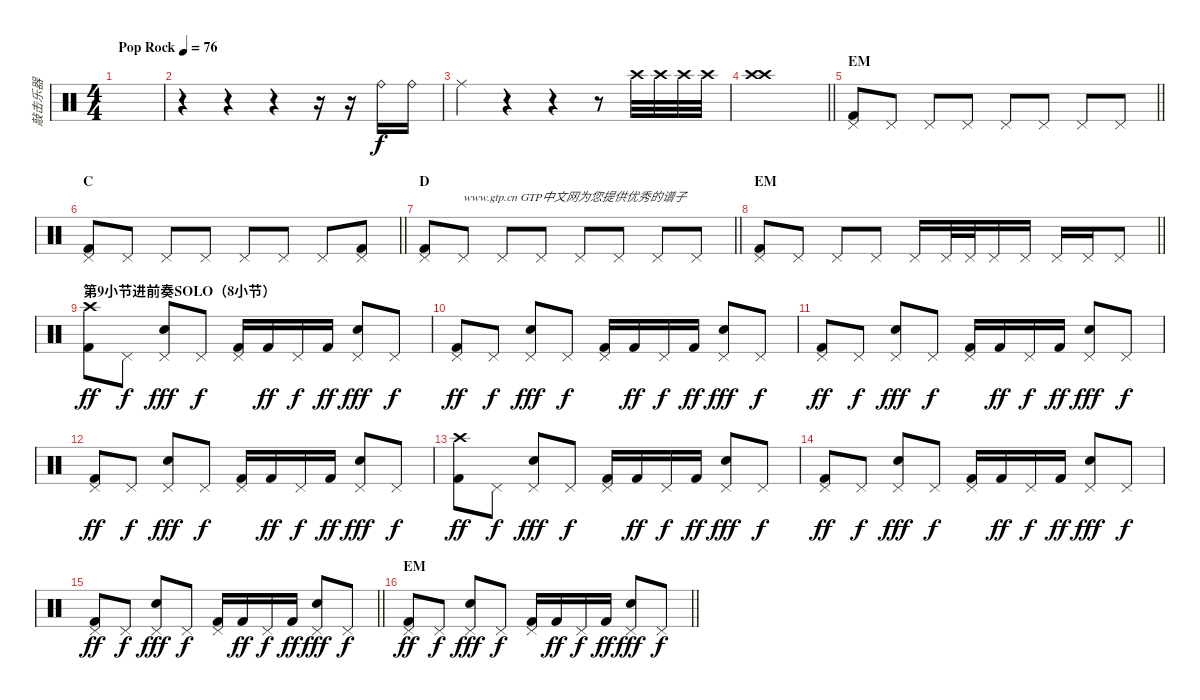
\track ("敲击乐器" "敲击乐器") {instrument percussion}
\staff {score}
\articulation defaults
\ts (4 4)
\tempo (76 "Pop Rock")
\clef neutral
\ks c
|
r.4 r.4 r.4 r.16 r.16 "Ride (bell)".16 "Ride (bell)".16 |
"Ride (middle)".4 r.4 r.4 r.8 "Crash high (hit)".32 "Crash high (hit)".32 "Crash high (hit)".32 "Crash high (hit)".32 |
\barLineRight lightlight
("Crash high (hit)" "Crash high (hit)").1 |
\section ("" "EM")
\barLineRight lightlight
("Pedal Hi-Hat (hit)" "Kick (hit) 2").8 "Pedal Hi-Hat (hit)".8 "Pedal Hi-Hat (hit)".8 "Pedal Hi-Hat (hit)".8 "Pedal Hi-Hat (hit)".8 "Pedal Hi-Hat (hit)".8 "Pedal Hi-Hat (hit)".8 "Pedal Hi-Hat (hit)".8 |
\section ("" "C")
\barLineRight lightlight
("Pedal Hi-Hat (hit)" "Kick (hit) 2").8 "Pedal Hi-Hat (hit)".8 "Pedal Hi-Hat (hit)".8 "Pedal Hi-Hat (hit)".8 "Pedal Hi-Hat (hit)".8 "Pedal Hi-Hat (hit)".8 "Pedal Hi-Hat (hit)".8 ("Pedal Hi-Hat (hit)" "Kick (hit) 2").8 |
\section ("" "D")
\barLineRight lightlight
("Pedal Hi-Hat (hit)" "Kick (hit) 2").8 "Pedal Hi-Hat (hit)".8{txt "www.gtp.cn GTP中文网为您提供优秀的谱子"} "Pedal Hi-Hat (hit)".8 "Pedal Hi-Hat (hit)".8 "Pedal Hi-Hat (hit)".8 "Pedal Hi-Hat (hit)".8 "Pedal Hi-Hat (hit)".8 "Pedal Hi-Hat (hit)".8 |
\section ("" "EM")
\barLineRight lightlight
("Pedal Hi-Hat (hit)" "Kick (hit) 2").8 "Pedal Hi-Hat (hit)".8 "Pedal Hi-Hat (hit)".8 "Pedal Hi-Hat (hit)".8 "Pedal Hi-Hat (hit)".16 "Pedal Hi-Hat (hit)".32 "Pedal Hi-Hat (hit)".32 "Pedal Hi-Hat (hit)".16 "Pedal Hi-Hat (hit)".16 "Pedal Hi-Hat (hit)".16 "Pedal Hi-Hat (hit)".16 "Pedal Hi-Hat (hit)".8 |
\section ("" "第9小节进前奏SOLO（8小节）")
("Crash high (hit)" "Kick (hit) 2").8{dy ff} "Pedal Hi-Hat (hit)".8{dy f} ("Pedal Hi-Hat (hit)" "Electric Snare (hit)").8{dy fff} "Pedal Hi-Hat (hit)".8{dy f} ("Pedal Hi-Hat (hit)" "Kick (hit) 2").16 "Kick (hit) 2".16{dy ff} "Pedal Hi-Hat (hit)".16{dy f} "Kick (hit) 2".16{dy ff} ("Pedal Hi-Hat (hit)" "Electric Snare (hit)").8{dy fff} "Pedal Hi-Hat (hit)".8{dy f} |
("Pedal Hi-Hat (hit)" "Kick (hit) 2").8{dy ff} "Pedal Hi-Hat (hit)".8{dy f} ("Pedal Hi-Hat (hit)" "Electric Snare (hit)").8{dy fff} "Pedal Hi-Hat (hit)".8{dy f} ("Pedal Hi-Hat (hit)" "Kick (hit) 2").16 "Kick (hit) 2".16{dy ff} "Pedal Hi-Hat (hit)".16{dy f} "Kick (hit) 2".16{dy ff} ("Pedal Hi-Hat (hit)" "Electric Snare (hit)").8{dy fff} "Pedal Hi-Hat (hit)".8{dy f} |
("Pedal Hi-Hat (hit)" "Kick (hit) 2").8{dy ff} "Pedal Hi-Hat (hit)".8{dy f} ("Pedal Hi-Hat (hit)" "Electric Snare (hit)").8{dy fff} "Pedal Hi-Hat (hit)".8{dy f} ("Pedal Hi-Hat (hit)" "Kick (hit) 2").16 "Kick (hit) 2".16{dy ff} "Pedal Hi-Hat (hit)".16{dy f} "Kick (hit) 2".16{dy ff} ("Pedal Hi-Hat (hit)" "Electric Snare (hit)").8{dy fff} "Pedal Hi-Hat (hit)".8{dy f} |
("Pedal Hi-Hat (hit)" "Kick (hit) 2").8{dy ff} "Pedal Hi-Hat (hit)".8{dy f} ("Pedal Hi-Hat (hit)" "Electric Snare (hit)").8{dy fff} "Pedal Hi-Hat (hit)".8{dy f} ("Pedal Hi-Hat (hit)" "Kick (hit) 2").16 "Kick (hit) 2".16{dy ff} "Pedal Hi-Hat (hit)".16{dy f} "Kick (hit) 2".16{dy ff} ("Pedal Hi-Hat (hit)" "Electric Snare (hit)").8{dy fff} "Pedal Hi-Hat (hit)".8{dy f} |
("Crash high (hit)" "Kick (hit) 2").8{dy ff} "Pedal Hi-Hat (hit)".8{dy f} ("Pedal Hi-Hat (hit)" "Electric Snare (hit)").8{dy fff} "Pedal Hi-Hat (hit)".8{dy f} ("Pedal Hi-Hat (hit)" "Kick (hit) 2").16 "Kick (hit) 2".16{dy ff} "Pedal Hi-Hat (hit)".16{dy f} "Kick (hit) 2".16{dy ff} ("Pedal Hi-Hat (hit)" "Electric Snare (hit)").8{dy fff} "Pedal Hi-Hat (hit)".8{dy f} |
("Pedal Hi-Hat (hit)" "Kick (hit) 2").8{dy ff} "Pedal Hi-Hat (hit)".8{dy f} ("Pedal Hi-Hat (hit)" "Electric Snare (hit)").8{dy fff} "Pedal Hi-Hat (hit)".8{dy f} ("Pedal Hi-Hat (hit)" "Kick (hit) 2").16 "Kick (hit) 2".16{dy ff} "Pedal Hi-Hat (hit)".16{dy f} "Kick (hit) 2".16{dy ff} ("Pedal Hi-Hat (hit)" "Electric Snare (hit)").8{dy fff} "Pedal Hi-Hat (hit)".8{dy f} |
\barLineRight lightlight
("Pedal Hi-Hat (hit)" "Kick (hit) 2").8{dy ff} "Pedal Hi-Hat (hit)".8{dy f} ("Pedal Hi-Hat (hit)" "Electric Snare (hit)").8{dy fff} "Pedal Hi-Hat (hit)".8{dy f} ("Pedal Hi-Hat (hit)" "Kick (hit) 2").16 "Kick (hit) 2".16{dy ff} "Pedal Hi-Hat (hit)".16{dy f} "Kick (hit) 2".16{dy ff} ("Pedal Hi-Hat (hit)" "Electric Snare (hit)").8{dy fff} "Pedal Hi-Hat (hit)".8{dy f} |
\section ("" "EM")
\barLineRight lightlight
("Pedal Hi-Hat (hit)" "Kick (hit) 2").8{dy ff} "Pedal Hi-Hat (hit)".8{dy f} ("Pedal Hi-Hat (hit)" "Electric Snare (hit)").8{dy fff} "Pedal Hi-Hat (hit)".8{dy f} ("Pedal Hi-Hat (hit)" "Kick (hit) 2").16 "Kick (hit) 2".16{dy ff} "Pedal Hi-Hat (hit)".16{dy f} "Kick (hit) 2".16{dy ff} ("Pedal Hi-Hat (hit)" "Electric Snare (hit)").8{dy fff} "Pedal Hi-Hat (hit)".8{dy f}
